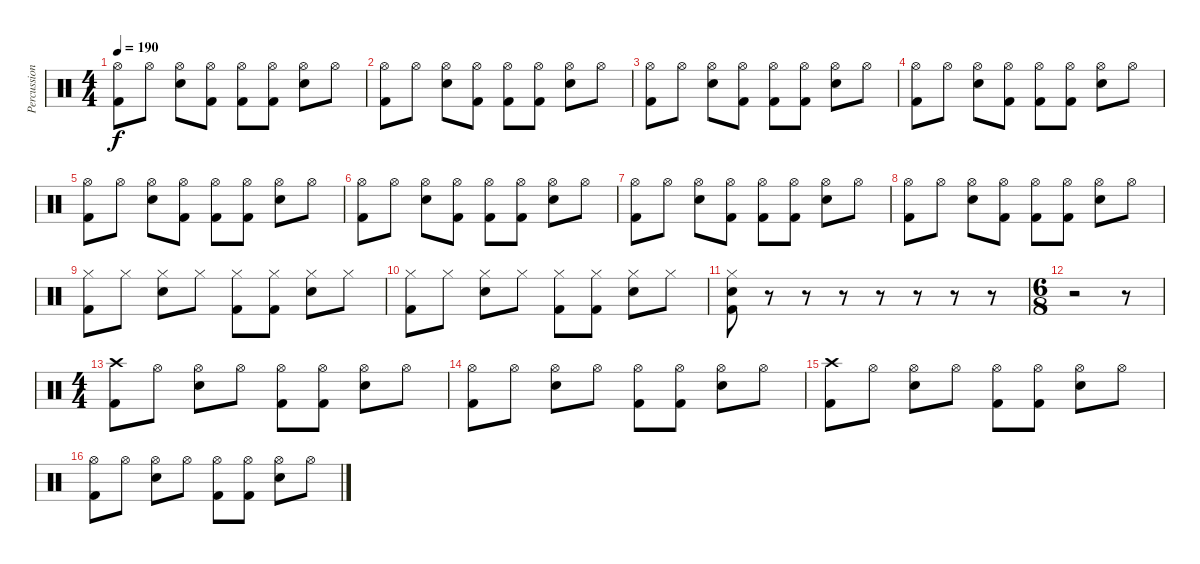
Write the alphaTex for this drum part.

\track ("Percussion" "Percussion") {instrument percussion}
\staff {score}
\articulation defaults
\ts (4 4)
\tempo 190
\clef neutral
\ks c
("Hi-Hat (open)" "Kick (hit) 2").8{dy f} "Hi-Hat (open)".8 ("Hi-Hat (open)" "Snare (hit) 2").8 ("Hi-Hat (open)" "Kick (hit) 2").8 ("Hi-Hat (open)" "Kick (hit) 2").8 ("Hi-Hat (open)" "Kick (hit) 2").8 ("Hi-Hat (open)" "Snare (hit) 2").8 "Hi-Hat (open)".8 |
("Hi-Hat (open)" "Kick (hit) 2").8 "Hi-Hat (open)".8 ("Hi-Hat (open)" "Snare (hit) 2").8 ("Hi-Hat (open)" "Kick (hit) 2").8 ("Hi-Hat (open)" "Kick (hit) 2").8 ("Hi-Hat (open)" "Kick (hit) 2").8 ("Hi-Hat (open)" "Snare (hit) 2").8 "Hi-Hat (open)".8 |
("Hi-Hat (open)" "Kick (hit) 2").8 "Hi-Hat (open)".8 ("Hi-Hat (open)" "Snare (hit) 2").8 ("Hi-Hat (open)" "Kick (hit) 2").8 ("Hi-Hat (open)" "Kick (hit) 2").8 ("Hi-Hat (open)" "Kick (hit) 2").8 ("Hi-Hat (open)" "Snare (hit) 2").8 "Hi-Hat (open)".8 |
("Hi-Hat (open)" "Kick (hit) 2").8 "Hi-Hat (open)".8 ("Hi-Hat (open)" "Snare (hit) 2").8 ("Hi-Hat (open)" "Kick (hit) 2").8 ("Hi-Hat (open)" "Kick (hit) 2").8 ("Hi-Hat (open)" "Kick (hit) 2").8 ("Hi-Hat (open)" "Snare (hit) 2").8 "Hi-Hat (open)".8 |
("Hi-Hat (open)" "Kick (hit) 2").8 "Hi-Hat (open)".8 ("Hi-Hat (open)" "Snare (hit) 2").8 ("Hi-Hat (open)" "Kick (hit) 2").8 ("Hi-Hat (open)" "Kick (hit) 2").8 ("Hi-Hat (open)" "Kick (hit) 2").8 ("Hi-Hat (open)" "Snare (hit) 2").8 "Hi-Hat (open)".8 |
("Hi-Hat (open)" "Kick (hit) 2").8 "Hi-Hat (open)".8 ("Hi-Hat (open)" "Snare (hit) 2").8 ("Hi-Hat (open)" "Kick (hit) 2").8 ("Hi-Hat (open)" "Kick (hit) 2").8 ("Hi-Hat (open)" "Kick (hit) 2").8 ("Hi-Hat (open)" "Snare (hit) 2").8 "Hi-Hat (open)".8 |
("Hi-Hat (open)" "Kick (hit) 2").8 "Hi-Hat (open)".8 ("Hi-Hat (open)" "Snare (hit) 2").8 ("Hi-Hat (open)" "Kick (hit) 2").8 ("Hi-Hat (open)" "Kick (hit) 2").8 ("Hi-Hat (open)" "Kick (hit) 2").8 ("Hi-Hat (open)" "Snare (hit) 2").8 "Hi-Hat (open)".8 |
("Hi-Hat (open)" "Kick (hit) 2").8 "Hi-Hat (open)".8 ("Hi-Hat (open)" "Snare (hit) 2").8 ("Hi-Hat (open)" "Kick (hit) 2").8 ("Hi-Hat (open)" "Kick (hit) 2").8 ("Hi-Hat (open)" "Kick (hit) 2").8 ("Hi-Hat (open)" "Snare (hit) 2").8 "Hi-Hat (open)".8 |
("Hi-Hat (closed)" "Kick (hit) 2").8 "Hi-Hat (closed)".8 ("Hi-Hat (closed)" "Snare (hit) 2").8 "Hi-Hat (closed)".8 ("Hi-Hat (closed)" "Kick (hit) 2").8 ("Hi-Hat (closed)" "Kick (hit) 2").8 ("Hi-Hat (closed)" "Snare (hit) 2").8 "Hi-Hat (closed)".8 |
("Hi-Hat (closed)" "Kick (hit) 2").8 "Hi-Hat (closed)".8 ("Hi-Hat (closed)" "Snare (hit) 2").8 "Hi-Hat (closed)".8 ("Hi-Hat (closed)" "Kick (hit) 2").8 ("Hi-Hat (closed)" "Kick (hit) 2").8 ("Hi-Hat (closed)" "Snare (hit) 2").8 "Hi-Hat (closed)".8 |
("Hi-Hat (closed)" "Snare (hit) 2" "Kick (hit) 2").8 r.8 r.8 r.8 r.8 r.8 r.8 r.8 |
\ts (6 8)
r.2 r.8 |
\ts (4 4)
("Crash high (hit)" "Kick (hit) 2").8 "Hi-Hat (open)".8 ("Hi-Hat (open)" "Snare (hit) 2").8 "Hi-Hat (open)".8 ("Hi-Hat (open)" "Kick (hit) 2").8 ("Hi-Hat (open)" "Kick (hit) 2").8 ("Hi-Hat (open)" "Snare (hit) 2").8 "Hi-Hat (open)".8 |
("Hi-Hat (open)" "Kick (hit) 2").8 "Hi-Hat (open)".8 ("Hi-Hat (open)" "Snare (hit) 2").8 "Hi-Hat (open)".8 ("Hi-Hat (open)" "Kick (hit) 2").8 ("Hi-Hat (open)" "Kick (hit) 2").8 ("Hi-Hat (open)" "Snare (hit) 2").8 "Hi-Hat (open)".8 |
("Crash high (hit)" "Kick (hit) 2").8 "Hi-Hat (open)".8 ("Hi-Hat (open)" "Snare (hit) 2").8 "Hi-Hat (open)".8 ("Hi-Hat (open)" "Kick (hit) 2").8 ("Hi-Hat (open)" "Kick (hit) 2").8 ("Hi-Hat (open)" "Snare (hit) 2").8 "Hi-Hat (open)".8 |
("Hi-Hat (open)" "Kick (hit) 2").8 "Hi-Hat (open)".8 ("Hi-Hat (open)" "Snare (hit) 2").8 "Hi-Hat (open)".8 ("Hi-Hat (open)" "Kick (hit) 2").8 ("Hi-Hat (open)" "Kick (hit) 2").8 ("Hi-Hat (open)" "Snare (hit) 2").8 "Hi-Hat (open)".8
